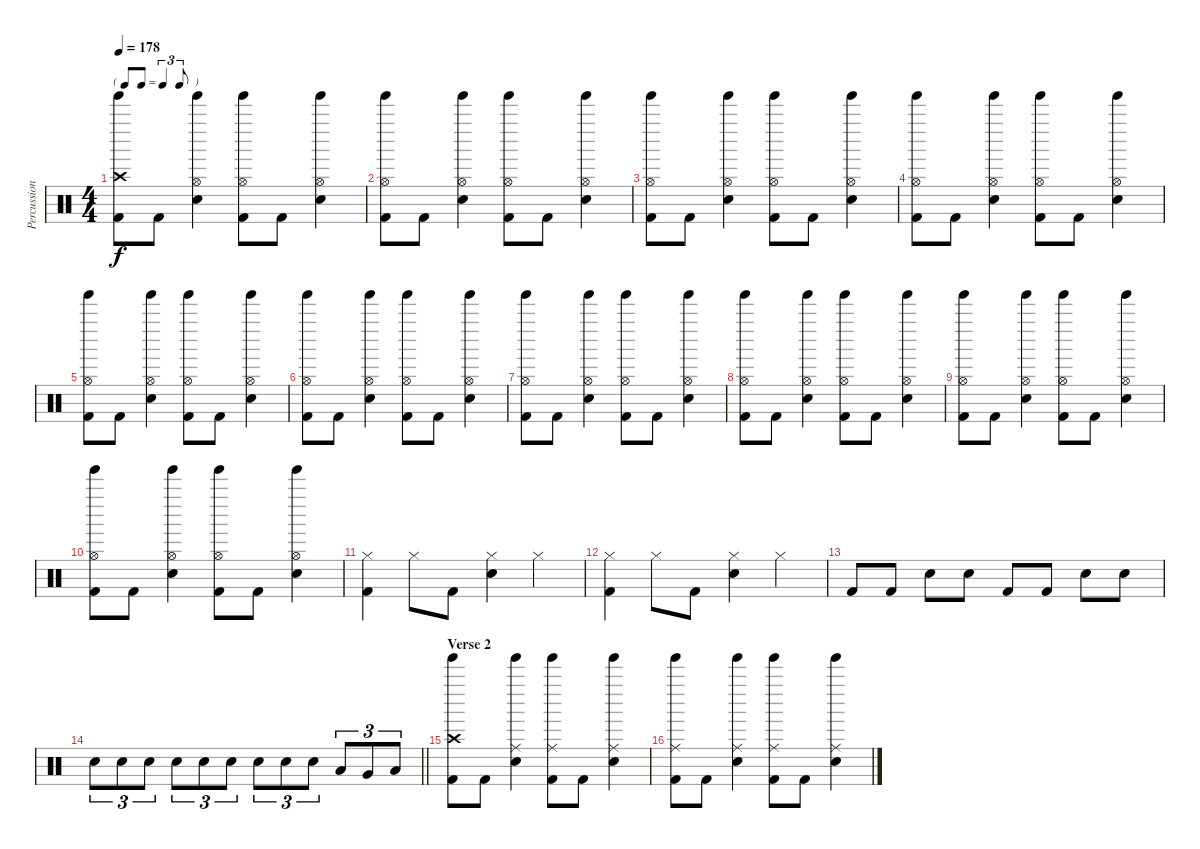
\track ("Percussion" "Percussion") {instrument percussion}
\staff {score}
\articulation defaults
\ts (4 4)
\tf triplet8th
\tempo 178
\clef neutral
\ks c
("Crash high (hit)" "Tinkle Bell (hit)" "Kick (hit) 2").8{dy f} "Kick (hit) 2".8 ("Hi-Hat (open)" "Tinkle Bell (hit)" "Snare (hit) 2").4 ("Hi-Hat (open)" "Tinkle Bell (hit)" "Kick (hit) 2").8 "Kick (hit) 2".8 ("Hi-Hat (open)" "Tinkle Bell (hit)" "Snare (hit) 2").4 |
("Hi-Hat (open)" "Tinkle Bell (hit)" "Kick (hit) 2").8 "Kick (hit) 2".8 ("Hi-Hat (open)" "Tinkle Bell (hit)" "Snare (hit) 2").4 ("Hi-Hat (open)" "Tinkle Bell (hit)" "Kick (hit) 2").8 "Kick (hit) 2".8 ("Hi-Hat (open)" "Tinkle Bell (hit)" "Snare (hit) 2").4 |
("Hi-Hat (open)" "Tinkle Bell (hit)" "Kick (hit) 2").8 "Kick (hit) 2".8 ("Hi-Hat (open)" "Tinkle Bell (hit)" "Snare (hit) 2").4 ("Hi-Hat (open)" "Tinkle Bell (hit)" "Kick (hit) 2").8 "Kick (hit) 2".8 ("Hi-Hat (open)" "Tinkle Bell (hit)" "Snare (hit) 2").4 |
("Hi-Hat (open)" "Tinkle Bell (hit)" "Kick (hit) 2").8 "Kick (hit) 2".8 ("Hi-Hat (open)" "Tinkle Bell (hit)" "Snare (hit) 2").4 ("Hi-Hat (open)" "Tinkle Bell (hit)" "Kick (hit) 2").8 "Kick (hit) 2".8 ("Hi-Hat (open)" "Tinkle Bell (hit)" "Snare (hit) 2").4 |
("Hi-Hat (open)" "Tinkle Bell (hit)" "Kick (hit) 2").8 "Kick (hit) 2".8 ("Hi-Hat (open)" "Tinkle Bell (hit)" "Snare (hit) 2").4 ("Hi-Hat (open)" "Tinkle Bell (hit)" "Kick (hit) 2").8 "Kick (hit) 2".8 ("Hi-Hat (open)" "Tinkle Bell (hit)" "Snare (hit) 2").4 |
("Hi-Hat (open)" "Tinkle Bell (hit)" "Kick (hit) 2").8 "Kick (hit) 2".8 ("Hi-Hat (open)" "Tinkle Bell (hit)" "Snare (hit) 2").4 ("Hi-Hat (open)" "Tinkle Bell (hit)" "Kick (hit) 2").8 "Kick (hit) 2".8 ("Hi-Hat (open)" "Tinkle Bell (hit)" "Snare (hit) 2").4 |
("Hi-Hat (open)" "Tinkle Bell (hit)" "Kick (hit) 2").8 "Kick (hit) 2".8 ("Hi-Hat (open)" "Tinkle Bell (hit)" "Snare (hit) 2").4 ("Hi-Hat (open)" "Tinkle Bell (hit)" "Kick (hit) 2").8 "Kick (hit) 2".8 ("Hi-Hat (open)" "Tinkle Bell (hit)" "Snare (hit) 2").4 |
("Hi-Hat (open)" "Tinkle Bell (hit)" "Kick (hit) 2").8 "Kick (hit) 2".8 ("Hi-Hat (open)" "Tinkle Bell (hit)" "Snare (hit) 2").4 ("Hi-Hat (open)" "Tinkle Bell (hit)" "Kick (hit) 2").8 "Kick (hit) 2".8 ("Hi-Hat (open)" "Tinkle Bell (hit)" "Snare (hit) 2").4 |
("Hi-Hat (open)" "Tinkle Bell (hit)" "Kick (hit) 2").8 "Kick (hit) 2".8 ("Hi-Hat (open)" "Tinkle Bell (hit)" "Snare (hit) 2").4 ("Hi-Hat (open)" "Tinkle Bell (hit)" "Kick (hit) 2").8 "Kick (hit) 2".8 ("Hi-Hat (open)" "Tinkle Bell (hit)" "Snare (hit) 2").4 |
("Hi-Hat (open)" "Tinkle Bell (hit)" "Kick (hit) 2").8 "Kick (hit) 2".8 ("Hi-Hat (open)" "Tinkle Bell (hit)" "Snare (hit) 2").4 ("Hi-Hat (open)" "Tinkle Bell (hit)" "Kick (hit) 2").8 "Kick (hit) 2".8 ("Hi-Hat (open)" "Tinkle Bell (hit)" "Snare (hit) 2").4 |
("Hi-Hat (closed)" "Kick (hit) 2").4 "Hi-Hat (closed)".8 "Kick (hit) 2".8 ("Hi-Hat (closed)" "Snare (hit) 2").4 "Hi-Hat (closed)".4 |
("Hi-Hat (closed)" "Kick (hit) 2").4 "Hi-Hat (closed)".8 "Kick (hit) 2".8 ("Hi-Hat (closed)" "Snare (hit) 2").4 "Hi-Hat (closed)".4 |
"Kick (hit) 2".8 "Kick (hit) 2".8 "Snare (hit) 2".8 "Snare (hit) 2".8 "Kick (hit) 2".8 "Kick (hit) 2".8 "Snare (hit) 2".8 "Snare (hit) 2".8 |
\barLineRight lightlight "Snare (hit) 2".8{tu (3 2)} "Snare (hit) 2".8{tu (3 2)} "Snare (hit) 2".8{tu (3 2)} "Snare (hit) 2".8{tu (3 2)} "Snare (hit) 2".8{tu (3 2)} "Snare (hit) 2".8{tu (3 2)} "Snare (hit) 2".8{tu (3 2)} "Snare (hit) 2".8{tu (3 2)} "Snare (hit) 2".8{tu (3 2)} "Low Tom (hit)".8{tu (3 2)} "Very Low Tom (hit)".8{tu (3 2)} "Low Floor Tom (hit)".8{tu (3 2)}
|
\section ("" "Verse 2")
("Crash high (hit)" "Tinkle Bell (hit)" "Kick (hit) 2").8 "Kick (hit) 2".8 ("Ride (middle)" "Tinkle Bell (hit)" "Snare (hit) 2").4 ("Ride (middle)" "Tinkle Bell (hit)" "Kick (hit) 2").8 "Kick (hit) 2".8 ("Ride (middle)" "Tinkle Bell (hit)" "Snare (hit) 2").4 |
("Ride (middle)" "Tinkle Bell (hit)" "Kick (hit) 2").8 "Kick (hit) 2".8 ("Ride (middle)" "Tinkle Bell (hit)" "Snare (hit) 2").4 ("Ride (middle)" "Tinkle Bell (hit)" "Kick (hit) 2").8 "Kick (hit) 2".8 ("Ride (middle)" "Tinkle Bell (hit)" "Snare (hit) 2").4
